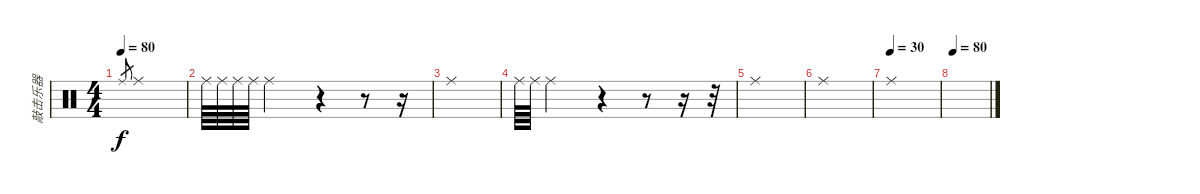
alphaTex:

\track ("敲击乐器" "敲击乐器") {instrument percussion}
\staff {score}
\articulation defaults
\ts (4 4)
\tempo 80
\clef neutral
\ks c "Ride (middle)".8{gr dy f} "Ride (middle)".1
|
"Ride (middle)".64 "Ride (middle)".64 "Ride (middle)".64 "Ride (middle)".64 "Ride (middle)".2 r.4 r.8 r.16 |
"Ride (middle)".1 |
"Ride (middle)".64 "Ride (middle)".64 "Ride (middle)".2 r.4 r.8 r.16 r.32 |
"Ride (middle)".1 |
"Ride (middle)".1 |
\tempo (30)
"Ride (middle)".1 |
\tempo 80
